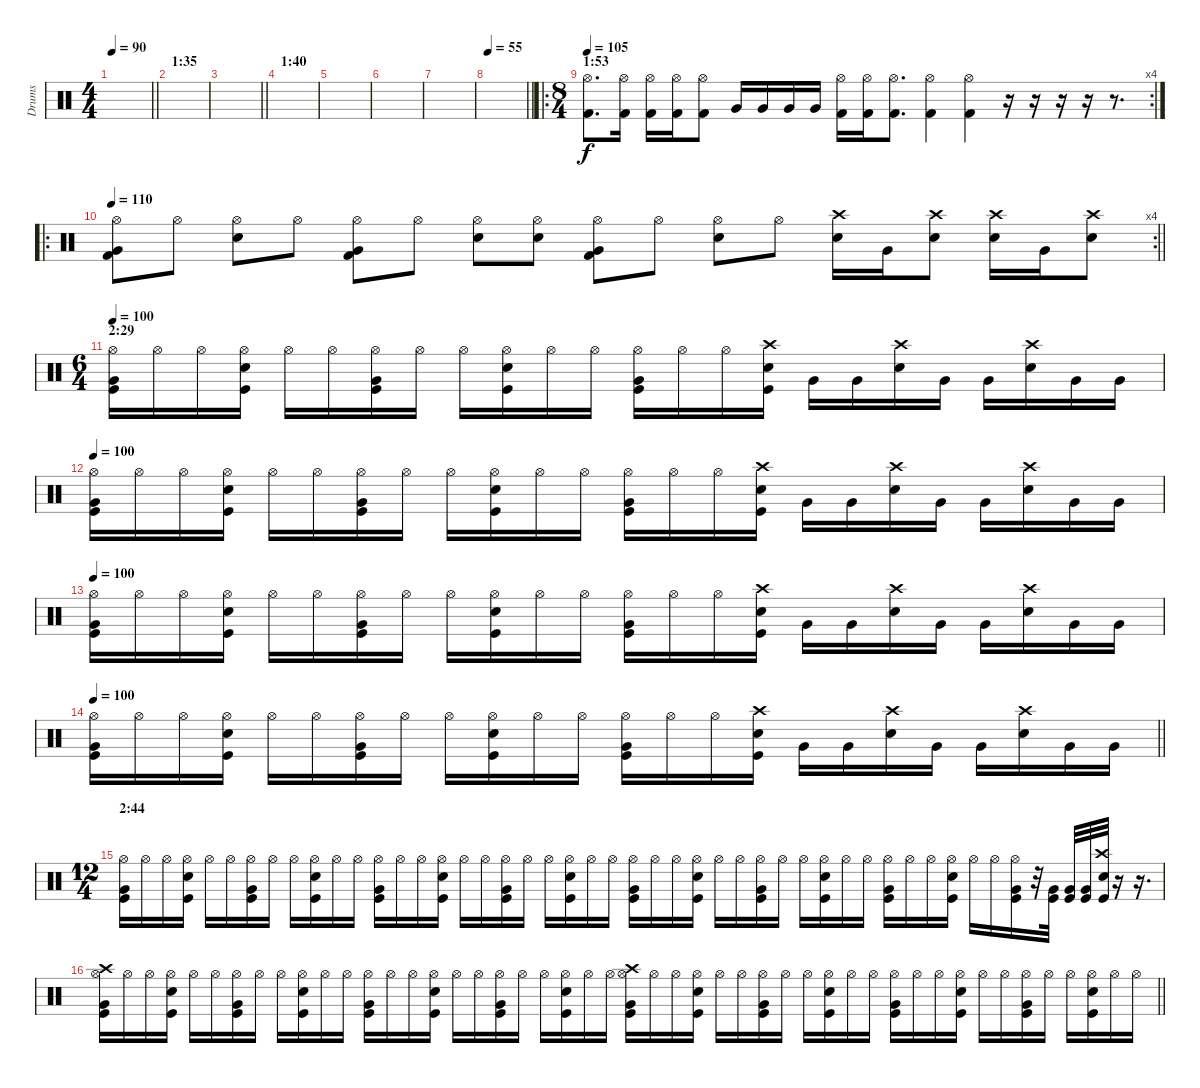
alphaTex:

\track ("Drums" "Drums") {instrument percussion}
\staff {score}
\articulation defaults
\ts (4 4)
\tempo 90
\clef neutral
\barLineRight lightlight
\ks c
|
\section ("" "1:35")
|
\barLineRight lightlight
|
\section ("" "1:40")
|
|
|
|
\tempo 55
\barLineRight lightlight
|
\ro
\rc 4
\ts (8 4)
\section ("" "1:53")
\tempo 105
("Hi-Hat (open)" "Kick (hit) 2").8{d} ("Hi-Hat (open)" "Kick (hit) 2").16 ("Hi-Hat (open)" "Kick (hit) 2").16 ("Hi-Hat (open)" "Kick (hit) 2").16 ("Hi-Hat (open)" "Kick (hit) 2").8 "Very Low Tom (hit)".16 "Very Low Tom (hit)".16 "Very Low Tom (hit)".16 "Very Low Tom (hit)".16 ("Hi-Hat (open)" "Kick (hit) 2").16 ("Hi-Hat (open)" "Kick (hit) 2").16 ("Hi-Hat (open)" "Kick (hit) 2").8{d} ("Hi-Hat (open)" "Kick (hit) 2").4 ("Hi-Hat (open)" "Kick (hit) 2").4 r.16 r.16 r.16 r.16 r.8{d} |
\ro
\rc 4
\tempo 110
\barLineRight lightlight
("Hi-Hat (open)" "Very Low Tom (hit)" "Kick (hit) 2").8 "Hi-Hat (open)".8 ("Hi-Hat (open)" "Snare (hit) 2").8 "Hi-Hat (open)".8 ("Hi-Hat (open)" "Very Low Tom (hit)" "Kick (hit) 2").8 "Hi-Hat (open)".8 ("Hi-Hat (open)" "Snare (hit) 2").8 ("Hi-Hat (open)" "Snare (hit) 2").8 ("Hi-Hat (open)" "Very Low Tom (hit)" "Kick (hit) 2").8 "Hi-Hat (open)".8 ("Hi-Hat (open)" "Snare (hit) 2").8 "Hi-Hat (open)".8 ("Crash high (hit)" "Snare (hit) 2").16 "Very Low Tom (hit)".16 ("Crash high (hit)" "Snare (hit) 2").8 ("Crash high (hit)" "Snare (hit) 2").16 "Very Low Tom (hit)".16 ("Crash high (hit)" "Snare (hit) 2").8 |
\ts (6 4)
\section ("" "2:29")
\tempo 100
("Hi-Hat (open)" "Very Low Tom (hit)" "Kick (hit)").16 "Hi-Hat (open)".16 "Hi-Hat (open)".16 ("Hi-Hat (open)" "Snare (hit) 2" "Kick (hit)").16 "Hi-Hat (open)".16 "Hi-Hat (open)".16 ("Hi-Hat (open)" "Very Low Tom (hit)" "Kick (hit)").16 "Hi-Hat (open)".16 "Hi-Hat (open)".16 ("Hi-Hat (open)" "Snare (hit) 2" "Kick (hit)").16 "Hi-Hat (open)".16 "Hi-Hat (open)".16 ("Hi-Hat (open)" "Very Low Tom (hit)" "Kick (hit)").16 "Hi-Hat (open)".16 "Hi-Hat (open)".16 ("Crash high (hit)" "Snare (hit) 2" "Kick (hit)").16 "Very Low Tom (hit)".16 "Very Low Tom (hit)".16 ("Crash high (hit)" "Snare (hit) 2").16 "Very Low Tom (hit)".16 "Very Low Tom (hit)".16 ("Crash high (hit)" "Snare (hit) 2").16 "Very Low Tom (hit)".16 "Very Low Tom (hit)".16 |
\tempo 100
("Hi-Hat (open)" "Very Low Tom (hit)" "Kick (hit)").16 "Hi-Hat (open)".16 "Hi-Hat (open)".16 ("Hi-Hat (open)" "Snare (hit) 2" "Kick (hit)").16 "Hi-Hat (open)".16 "Hi-Hat (open)".16 ("Hi-Hat (open)" "Very Low Tom (hit)" "Kick (hit)").16 "Hi-Hat (open)".16 "Hi-Hat (open)".16 ("Hi-Hat (open)" "Snare (hit) 2" "Kick (hit)").16 "Hi-Hat (open)".16 "Hi-Hat (open)".16 ("Hi-Hat (open)" "Very Low Tom (hit)" "Kick (hit)").16 "Hi-Hat (open)".16 "Hi-Hat (open)".16 ("Crash high (hit)" "Snare (hit) 2" "Kick (hit)").16 "Very Low Tom (hit)".16 "Very Low Tom (hit)".16 ("Crash high (hit)" "Snare (hit) 2").16 "Very Low Tom (hit)".16 "Very Low Tom (hit)".16 ("Crash high (hit)" "Snare (hit) 2").16 "Very Low Tom (hit)".16 "Very Low Tom (hit)".16 |
\tempo 100
("Hi-Hat (open)" "Very Low Tom (hit)" "Kick (hit)").16 "Hi-Hat (open)".16 "Hi-Hat (open)".16 ("Hi-Hat (open)" "Snare (hit) 2" "Kick (hit)").16 "Hi-Hat (open)".16 "Hi-Hat (open)".16 ("Hi-Hat (open)" "Very Low Tom (hit)" "Kick (hit)").16 "Hi-Hat (open)".16 "Hi-Hat (open)".16 ("Hi-Hat (open)" "Snare (hit) 2" "Kick (hit)").16 "Hi-Hat (open)".16 "Hi-Hat (open)".16 ("Hi-Hat (open)" "Very Low Tom (hit)" "Kick (hit)").16 "Hi-Hat (open)".16 "Hi-Hat (open)".16 ("Crash high (hit)" "Snare (hit) 2" "Kick (hit)").16 "Very Low Tom (hit)".16 "Very Low Tom (hit)".16 ("Crash high (hit)" "Snare (hit) 2").16 "Very Low Tom (hit)".16 "Very Low Tom (hit)".16 ("Crash high (hit)" "Snare (hit) 2").16 "Very Low Tom (hit)".16 "Very Low Tom (hit)".16 |
\tempo 100
\barLineRight lightlight
("Hi-Hat (open)" "Very Low Tom (hit)" "Kick (hit)").16 "Hi-Hat (open)".16 "Hi-Hat (open)".16 ("Hi-Hat (open)" "Snare (hit) 2" "Kick (hit)").16 "Hi-Hat (open)".16 "Hi-Hat (open)".16 ("Hi-Hat (open)" "Very Low Tom (hit)" "Kick (hit)").16 "Hi-Hat (open)".16 "Hi-Hat (open)".16 ("Hi-Hat (open)" "Snare (hit) 2" "Kick (hit)").16 "Hi-Hat (open)".16 "Hi-Hat (open)".16 ("Hi-Hat (open)" "Very Low Tom (hit)" "Kick (hit)").16 "Hi-Hat (open)".16 "Hi-Hat (open)".16 ("Crash high (hit)" "Snare (hit) 2" "Kick (hit)").16 "Very Low Tom (hit)".16 "Very Low Tom (hit)".16 ("Crash high (hit)" "Snare (hit) 2").16 "Very Low Tom (hit)".16 "Very Low Tom (hit)".16 ("Crash high (hit)" "Snare (hit) 2").16 "Very Low Tom (hit)".16 "Very Low Tom (hit)".16 |
\ts (12 4)
\section ("" "2:44")
("Hi-Hat (open)" "Very Low Tom (hit)" "Kick (hit)").16 "Hi-Hat (open)".16 "Hi-Hat (open)".16 ("Hi-Hat (open)" "Snare (hit) 2" "Kick (hit)").16 "Hi-Hat (open)".16 "Hi-Hat (open)".16 ("Hi-Hat (open)" "Very Low Tom (hit)" "Kick (hit)").16 "Hi-Hat (open)".16 "Hi-Hat (open)".16 ("Hi-Hat (open)" "Snare (hit) 2" "Kick (hit)").16 "Hi-Hat (open)".16 "Hi-Hat (open)".16 ("Hi-Hat (open)" "Very Low Tom (hit)" "Kick (hit)").16 "Hi-Hat (open)".16 "Hi-Hat (open)".16 ("Hi-Hat (open)" "Snare (hit) 2" "Kick (hit)").16 "Hi-Hat (open)".16 "Hi-Hat (open)".16 ("Hi-Hat (open)" "Very Low Tom (hit)" "Kick (hit)").16 "Hi-Hat (open)".16 "Hi-Hat (open)".16 ("Hi-Hat (open)" "Snare (hit) 2" "Kick (hit)").16 "Hi-Hat (open)".16 "Hi-Hat (open)".16 ("Hi-Hat (open)" "Very Low Tom (hit)" "Kick (hit)").16 "Hi-Hat (open)".16 "Hi-Hat (open)".16 ("Hi-Hat (open)" "Snare (hit) 2" "Kick (hit)").16 "Hi-Hat (open)".16 "Hi-Hat (open)".16 ("Hi-Hat (open)" "Very Low Tom (hit)" "Kick (hit)").16 "Hi-Hat (open)".16 "Hi-Hat (open)".16 ("Hi-Hat (open)" "Snare (hit) 2" "Kick (hit)").16 "Hi-Hat (open)".16 "Hi-Hat (open)".16 ("Hi-Hat (open)" "Very Low Tom (hit)" "Kick (hit)").16 "Hi-Hat (open)".16 "Hi-Hat (open)".16 ("Hi-Hat (open)" "Snare (hit) 2" "Kick (hit)").16 "Hi-Hat (open)".16 "Hi-Hat (open)".16 ("Hi-Hat (open)" "Very Low Tom (hit)" "Kick (hit)").16 r.32 ("Very Low Tom (hit)" "Kick (hit)").32 ("Very Low Tom (hit)" "Kick (hit)").32 ("Very Low Tom (hit)" "Kick (hit)").32 ("Crash high (hit)" "Snare (hit) 2" "Kick (hit)").32 r.16 r.16{d} |
\barLineRight lightlight
("Hi-Hat (open)" "Crash high (hit)" "Very Low Tom (hit)" "Kick (hit)").16 "Hi-Hat (open)".16 "Hi-Hat (open)".16 ("Hi-Hat (open)" "Snare (hit) 2" "Kick (hit)").16 "Hi-Hat (open)".16 "Hi-Hat (open)".16 ("Hi-Hat (open)" "Very Low Tom (hit)" "Kick (hit)").16 "Hi-Hat (open)".16 "Hi-Hat (open)".16 ("Hi-Hat (open)" "Snare (hit) 2" "Kick (hit)").16 "Hi-Hat (open)".16 "Hi-Hat (open)".16 ("Hi-Hat (open)" "Very Low Tom (hit)" "Kick (hit)").16 "Hi-Hat (open)".16 "Hi-Hat (open)".16 ("Hi-Hat (open)" "Snare (hit) 2" "Kick (hit)").16 "Hi-Hat (open)".16 "Hi-Hat (open)".16 ("Hi-Hat (open)" "Very Low Tom (hit)" "Kick (hit)").16 "Hi-Hat (open)".16 "Hi-Hat (open)".16 ("Hi-Hat (open)" "Snare (hit) 2" "Kick (hit)").16 "Hi-Hat (open)".16 "Hi-Hat (open)".16 ("Hi-Hat (open)" "Crash high (hit)" "Very Low Tom (hit)" "Kick (hit)").16 "Hi-Hat (open)".16 "Hi-Hat (open)".16 ("Hi-Hat (open)" "Snare (hit) 2" "Kick (hit)").16 "Hi-Hat (open)".16 "Hi-Hat (open)".16 ("Hi-Hat (open)" "Very Low Tom (hit)" "Kick (hit)").16 "Hi-Hat (open)".16 "Hi-Hat (open)".16 ("Hi-Hat (open)" "Snare (hit) 2" "Kick (hit)").16 "Hi-Hat (open)".16 "Hi-Hat (open)".16 ("Hi-Hat (open)" "Very Low Tom (hit)" "Kick (hit)").16 "Hi-Hat (open)".16 "Hi-Hat (open)".16 ("Hi-Hat (open)" "Snare (hit) 2" "Kick (hit)").16 "Hi-Hat (open)".16 "Hi-Hat (open)".16 ("Hi-Hat (open)" "Very Low Tom (hit)" "Kick (hit)").16 "Hi-Hat (open)".16 "Hi-Hat (open)".16 ("Hi-Hat (open)" "Snare (hit) 2" "Kick (hit)").16 "Hi-Hat (open)".16 "Hi-Hat (open)".16
